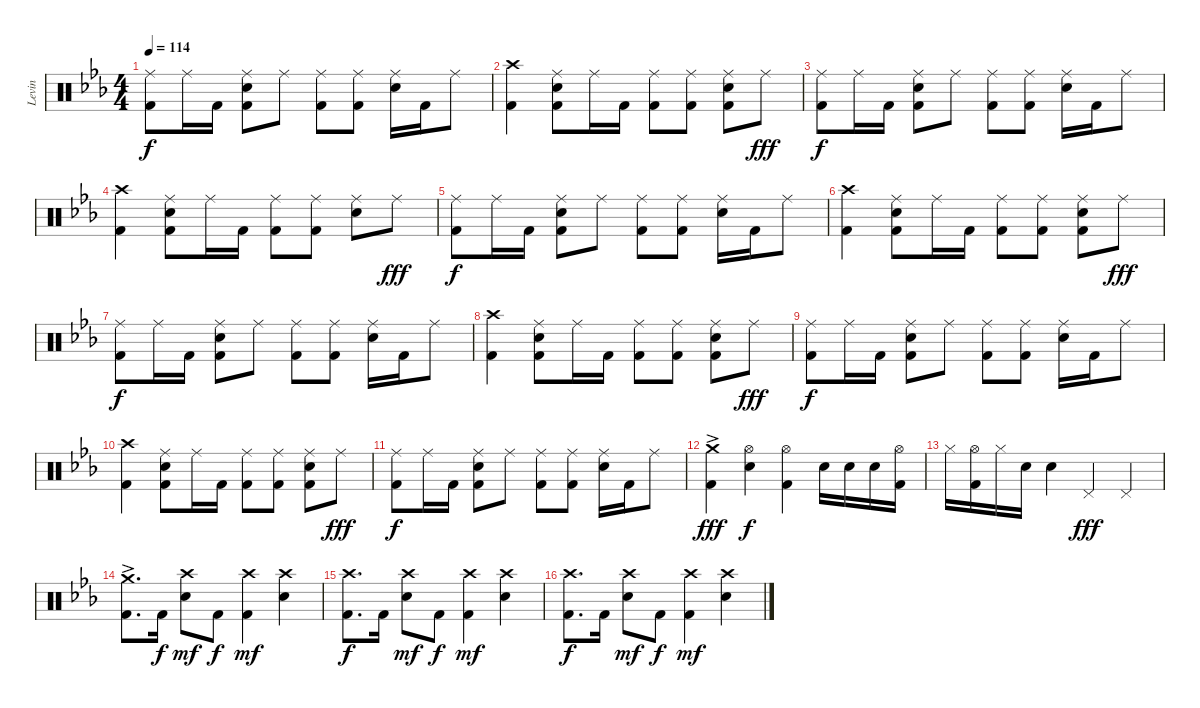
\track ("Levin" "Levin") {instrument percussion}
\staff {score}
\articulation defaults
\ts (4 4)
\tempo 114
\clef neutral
\ks eb
("Ride (middle)" "Kick (hit) 2").8{dy f} "Ride (middle)".16 "Kick (hit) 2".16 ("Ride (middle)" "Electric Snare (hit)" "Kick (hit) 2").8 "Ride (middle)".8 ("Ride (middle)" "Kick (hit) 2").8 ("Ride (middle)" "Kick (hit) 2").8 ("Ride (middle)" "Electric Snare (hit)").16 "Kick (hit) 2".16 "Ride (middle)".8 |
("Crash high (hit)" "Kick (hit) 2").4 ("Ride (middle)" "Electric Snare (hit)" "Kick (hit) 2").8 "Ride (middle)".16 "Kick (hit) 2".16 ("Ride (middle)" "Kick (hit) 2").8 ("Ride (middle)" "Kick (hit) 2").8 ("Ride (middle)" "Electric Snare (hit)" "Kick (hit) 2").8 "Ride (middle)".8{dy fff} |
("Ride (middle)" "Kick (hit) 2").8{dy f} "Ride (middle)".16 "Kick (hit) 2".16 ("Ride (middle)" "Electric Snare (hit)" "Kick (hit) 2").8 "Ride (middle)".8 ("Ride (middle)" "Kick (hit) 2").8 ("Ride (middle)" "Kick (hit) 2").8 ("Ride (middle)" "Electric Snare (hit)").16 "Kick (hit) 2".16 "Ride (middle)".8 |
("Crash high (hit)" "Kick (hit) 2").4 ("Ride (middle)" "Electric Snare (hit)" "Kick (hit) 2").8 "Ride (middle)".16 "Kick (hit) 2".16 ("Ride (middle)" "Kick (hit) 2").8 ("Ride (middle)" "Kick (hit) 2").8 ("Ride (middle)" "Electric Snare (hit)").8 "Ride (middle)".8{dy fff} |
("Ride (middle)" "Kick (hit) 2").8{dy f} "Ride (middle)".16 "Kick (hit) 2".16 ("Ride (middle)" "Electric Snare (hit)" "Kick (hit) 2").8 "Ride (middle)".8 ("Ride (middle)" "Kick (hit) 2").8 ("Ride (middle)" "Kick (hit) 2").8 ("Ride (middle)" "Electric Snare (hit)").16 "Kick (hit) 2".16 "Ride (middle)".8 |
("Crash high (hit)" "Kick (hit) 2").4 ("Ride (middle)" "Electric Snare (hit)" "Kick (hit) 2").8 "Ride (middle)".16 "Kick (hit) 2".16 ("Ride (middle)" "Kick (hit) 2").8 ("Ride (middle)" "Kick (hit) 2").8 ("Ride (middle)" "Electric Snare (hit)" "Kick (hit) 2").8 "Ride (middle)".8{dy fff} |
("Ride (middle)" "Kick (hit) 2").8{dy f} "Ride (middle)".16 "Kick (hit) 2".16 ("Ride (middle)" "Electric Snare (hit)" "Kick (hit) 2").8 "Ride (middle)".8 ("Ride (middle)" "Kick (hit) 2").8 ("Ride (middle)" "Kick (hit) 2").8 ("Ride (middle)" "Electric Snare (hit)").16 "Kick (hit) 2".16 "Ride (middle)".8 |
("Crash high (hit)" "Kick (hit) 2").4 ("Ride (middle)" "Electric Snare (hit)" "Kick (hit) 2").8 "Ride (middle)".16 "Kick (hit) 2".16 ("Ride (middle)" "Kick (hit) 2").8 ("Ride (middle)" "Kick (hit) 2").8 ("Ride (middle)" "Electric Snare (hit)" "Kick (hit) 2").8 "Ride (middle)".8{dy fff} |
("Ride (middle)" "Kick (hit) 2").8{dy f} "Ride (middle)".16 "Kick (hit) 2".16 ("Ride (middle)" "Electric Snare (hit)" "Kick (hit) 2").8 "Ride (middle)".8 ("Ride (middle)" "Kick (hit) 2").8 ("Ride (middle)" "Kick (hit) 2").8 ("Ride (middle)" "Electric Snare (hit)").16 "Kick (hit) 2".16 "Ride (middle)".8 |
("Crash high (hit)" "Kick (hit) 2").4 ("Ride (middle)" "Electric Snare (hit)" "Kick (hit) 2").8 "Ride (middle)".16 "Kick (hit) 2".16 ("Ride (middle)" "Kick (hit) 2").8 ("Ride (middle)" "Kick (hit) 2").8 ("Ride (middle)" "Electric Snare (hit)" "Kick (hit) 2").8 "Ride (middle)".8{dy fff} |
("Ride (middle)" "Kick (hit) 2").8{dy f} "Ride (middle)".16 "Kick (hit) 2".16 ("Ride (middle)" "Electric Snare (hit)" "Kick (hit) 2").8 "Ride (middle)".8 ("Ride (middle)" "Kick (hit) 2").8 ("Ride (middle)" "Kick (hit) 2").8 ("Ride (middle)" "Electric Snare (hit)").16 "Kick (hit) 2".16 "Ride (middle)".8 |
("Crash medium (hit)"{ac} "Kick (hit) 2").4{dy fff} ("Hi-Hat (open)" "Electric Snare (hit)").4{dy f} ("Hi-Hat (open)" "Kick (hit) 2").4 "Electric Snare (hit)".16 "Electric Snare (hit)".16 "Electric Snare (hit)".16 ("Hi-Hat (open)" "Kick (hit) 2").16 |
"Hi-Hat (closed)".16 ("Hi-Hat (open)" "Kick (hit) 2").16 "Hi-Hat (closed)".16 "Electric Snare (hit)".16 "Electric Snare (hit)".4 "Pedal Hi-Hat (hit)".4{dy fff} "Pedal Hi-Hat (hit)".4 |
("Crash medium (hit)"{ac} "Kick (hit) 2").8{d} "Kick (hit) 2".16{dy f} ("Crash high (hit)" "Electric Snare (hit)").8{dy mf} "Kick (hit) 2".8{dy f} ("Crash high (hit)" "Kick (hit) 2").4{dy mf} ("Crash high (hit)" "Electric Snare (hit)").4 |
("Crash high (hit)" "Kick (hit) 2").8{d dy f} "Kick (hit) 2".16 ("Crash high (hit)" "Electric Snare (hit)").8{dy mf} "Kick (hit) 2".8{dy f} ("Crash high (hit)" "Kick (hit) 2").4{dy mf} ("Crash high (hit)" "Electric Snare (hit)").4 |
("Crash high (hit)" "Kick (hit) 2").8{d dy f} "Kick (hit) 2".16 ("Crash high (hit)" "Electric Snare (hit)").8{dy mf} "Kick (hit) 2".8{dy f} ("Crash high (hit)" "Kick (hit) 2").4{dy mf} ("Crash high (hit)" "Electric Snare (hit)").4
